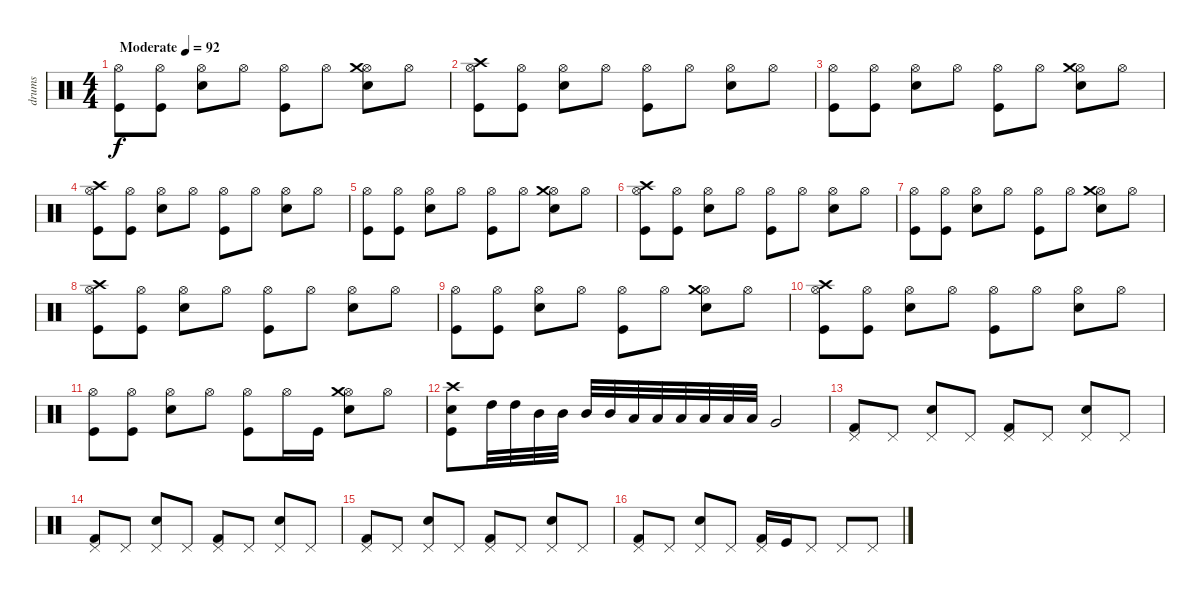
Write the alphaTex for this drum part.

\track ("drums" "drums") {instrument percussion}
\staff {score}
\articulation defaults
\ts (4 4)
\tempo (92 "Moderate")
\clef neutral
\ks c
("Kick (hit)" "Hi-Hat (open)").8{dy f} ("Kick (hit)" "Hi-Hat (open)").8{volume 15} ("Hi-Hat (open)" "Electric Snare (hit)").8 "Hi-Hat (open)".8 ("Kick (hit)" "Hi-Hat (open)").8 "Hi-Hat (open)".8 ("Hi-Hat (open)" "Electric Snare (hit)" "Crash medium (hit)").8 "Hi-Hat (open)".8 |
("Kick (hit)" "Hi-Hat (open)" "Crash high (hit)").8 ("Kick (hit)" "Hi-Hat (open)").8 ("Hi-Hat (open)" "Electric Snare (hit)").8 "Hi-Hat (open)".8 ("Kick (hit)" "Hi-Hat (open)").8 "Hi-Hat (open)".8 ("Hi-Hat (open)" "Electric Snare (hit)").8 "Hi-Hat (open)".8 |
("Kick (hit)" "Hi-Hat (open)").8 ("Kick (hit)" "Hi-Hat (open)").8 ("Hi-Hat (open)" "Electric Snare (hit)").8 "Hi-Hat (open)".8 ("Kick (hit)" "Hi-Hat (open)").8 "Hi-Hat (open)".8 ("Hi-Hat (open)" "Electric Snare (hit)" "Crash medium (hit)").8 "Hi-Hat (open)".8 |
("Kick (hit)" "Hi-Hat (open)" "Crash high (hit)").8 ("Kick (hit)" "Hi-Hat (open)").8 ("Hi-Hat (open)" "Electric Snare (hit)").8 "Hi-Hat (open)".8 ("Kick (hit)" "Hi-Hat (open)").8 "Hi-Hat (open)".8 ("Hi-Hat (open)" "Electric Snare (hit)").8 "Hi-Hat (open)".8 |
("Kick (hit)" "Hi-Hat (open)").8 ("Kick (hit)" "Hi-Hat (open)").8 ("Hi-Hat (open)" "Electric Snare (hit)").8 "Hi-Hat (open)".8 ("Kick (hit)" "Hi-Hat (open)").8 "Hi-Hat (open)".8 ("Hi-Hat (open)" "Electric Snare (hit)" "Crash medium (hit)").8 "Hi-Hat (open)".8 |
("Kick (hit)" "Hi-Hat (open)" "Crash high (hit)").8 ("Kick (hit)" "Hi-Hat (open)").8 ("Hi-Hat (open)" "Electric Snare (hit)").8 "Hi-Hat (open)".8 ("Kick (hit)" "Hi-Hat (open)").8 "Hi-Hat (open)".8 ("Hi-Hat (open)" "Electric Snare (hit)").8 "Hi-Hat (open)".8 |
("Kick (hit)" "Hi-Hat (open)").8 ("Kick (hit)" "Hi-Hat (open)").8 ("Hi-Hat (open)" "Electric Snare (hit)").8 "Hi-Hat (open)".8 ("Kick (hit)" "Hi-Hat (open)").8 "Hi-Hat (open)".8 ("Hi-Hat (open)" "Electric Snare (hit)" "Crash medium (hit)").8 "Hi-Hat (open)".8 |
("Kick (hit)" "Hi-Hat (open)" "Crash high (hit)").8 ("Kick (hit)" "Hi-Hat (open)").8 ("Hi-Hat (open)" "Electric Snare (hit)").8 "Hi-Hat (open)".8 ("Kick (hit)" "Hi-Hat (open)").8 "Hi-Hat (open)".8 ("Hi-Hat (open)" "Electric Snare (hit)").8 "Hi-Hat (open)".8 |
("Kick (hit)" "Hi-Hat (open)").8 ("Kick (hit)" "Hi-Hat (open)").8 ("Hi-Hat (open)" "Electric Snare (hit)").8 "Hi-Hat (open)".8 ("Kick (hit)" "Hi-Hat (open)").8 "Hi-Hat (open)".8 ("Hi-Hat (open)" "Electric Snare (hit)" "Crash medium (hit)").8 "Hi-Hat (open)".8 |
("Kick (hit)" "Hi-Hat (open)" "Crash high (hit)").8 ("Kick (hit)" "Hi-Hat (open)").8 ("Hi-Hat (open)" "Electric Snare (hit)").8 "Hi-Hat (open)".8 ("Kick (hit)" "Hi-Hat (open)").8 "Hi-Hat (open)".8 ("Hi-Hat (open)" "Electric Snare (hit)").8 "Hi-Hat (open)".8 |
("Kick (hit)" "Hi-Hat (open)").8 ("Kick (hit)" "Hi-Hat (open)").8 ("Hi-Hat (open)" "Electric Snare (hit)").8 "Hi-Hat (open)".8 ("Kick (hit)" "Hi-Hat (open)").8 "Hi-Hat (open)".16 "Kick (hit)".16 ("Hi-Hat (open)" "Electric Snare (hit)" "Crash medium (hit)").8 "Hi-Hat (open)".8 |
("Kick (hit)" "Electric Snare (hit)" "Crash high (hit)").8 "High Tom (hit)".32 "High Tom (hit)".32 "Mid Tom (hit)".32 "Mid Tom (hit)".32 "Mid Tom (hit)".32 "Mid Tom (hit)".32 "Low Tom (hit)".32 "Low Tom (hit)".32 "Low Tom (hit)".32 "Low Tom (hit)".32 "Low Tom (hit)".32 "Low Tom (hit)".32 "Very Low Tom (hit)".2 |
("Kick (hit) 2" "Pedal Hi-Hat (hit)").8 "Pedal Hi-Hat (hit)".8 ("Pedal Hi-Hat (hit)" "Snare (hit) 2").8 "Pedal Hi-Hat (hit)".8 ("Kick (hit) 2" "Pedal Hi-Hat (hit)").8 "Pedal Hi-Hat (hit)".8 ("Pedal Hi-Hat (hit)" "Snare (hit) 2").8 "Pedal Hi-Hat (hit)".8 |
("Kick (hit) 2" "Pedal Hi-Hat (hit)").8 "Pedal Hi-Hat (hit)".8 ("Pedal Hi-Hat (hit)" "Snare (hit) 2").8 "Pedal Hi-Hat (hit)".8 ("Kick (hit) 2" "Pedal Hi-Hat (hit)").8 "Pedal Hi-Hat (hit)".8 ("Pedal Hi-Hat (hit)" "Snare (hit) 2").8 "Pedal Hi-Hat (hit)".8 |
("Kick (hit) 2" "Pedal Hi-Hat (hit)").8 "Pedal Hi-Hat (hit)".8 ("Pedal Hi-Hat (hit)" "Snare (hit) 2").8 "Pedal Hi-Hat (hit)".8 ("Kick (hit) 2" "Pedal Hi-Hat (hit)").8 "Pedal Hi-Hat (hit)".8 ("Pedal Hi-Hat (hit)" "Snare (hit) 2").8 "Pedal Hi-Hat (hit)".8 |
("Kick (hit) 2" "Pedal Hi-Hat (hit)").8 "Pedal Hi-Hat (hit)".8 ("Pedal Hi-Hat (hit)" "Snare (hit) 2").8 "Pedal Hi-Hat (hit)".8 ("Kick (hit) 2" "Pedal Hi-Hat (hit)").16 "Kick (hit)".16 "Pedal Hi-Hat (hit)".8 "Pedal Hi-Hat (hit)".8 "Pedal Hi-Hat (hit)".8
